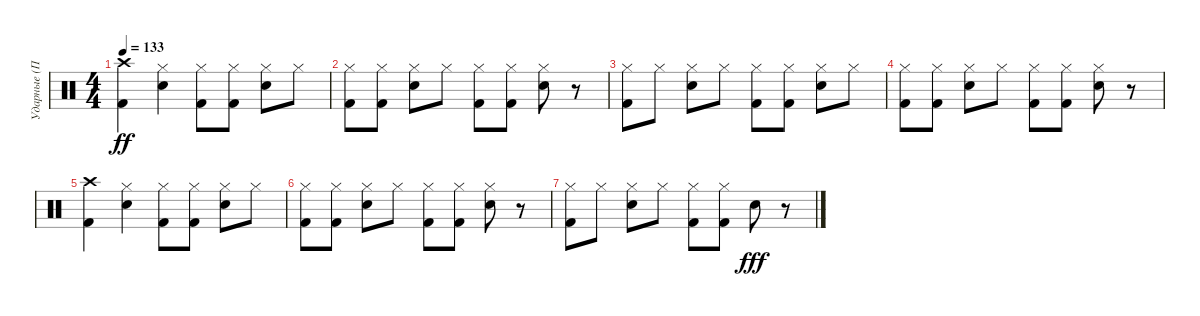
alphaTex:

\track ("Ударные (Пацан в Дредах)" "Ударные (П") {instrument percussion}
\staff {score}
\articulation defaults
\ts (4 4)
\tempo 133
\clef neutral
\ks c
("Crash high (hit)" "Kick (hit) 2").4{dy ff} ("Hi-Hat (closed)" "Electric Snare (hit)").4 ("Hi-Hat (closed)" "Kick (hit) 2").8 ("Hi-Hat (closed)" "Kick (hit) 2").8 ("Hi-Hat (closed)" "Electric Snare (hit)").8 "Hi-Hat (closed)".8 |
("Hi-Hat (closed)" "Kick (hit) 2").8 ("Hi-Hat (closed)" "Kick (hit) 2").8 ("Hi-Hat (closed)" "Electric Snare (hit)").8 "Hi-Hat (closed)".8 ("Hi-Hat (closed)" "Kick (hit) 2").8 ("Hi-Hat (closed)" "Kick (hit) 2").8 ("Hi-Hat (closed)" "Electric Snare (hit)").8 r.8 |
("Hi-Hat (closed)" "Kick (hit) 2").8 "Hi-Hat (closed)".8 ("Hi-Hat (closed)" "Electric Snare (hit)").8 "Hi-Hat (closed)".8 ("Hi-Hat (closed)" "Kick (hit) 2").8 ("Hi-Hat (closed)" "Kick (hit) 2").8 ("Hi-Hat (closed)" "Electric Snare (hit)").8 "Hi-Hat (closed)".8 |
("Hi-Hat (closed)" "Kick (hit) 2").8 ("Hi-Hat (closed)" "Kick (hit) 2").8 ("Hi-Hat (closed)" "Electric Snare (hit)").8 "Hi-Hat (closed)".8 ("Hi-Hat (closed)" "Kick (hit) 2").8 ("Hi-Hat (closed)" "Kick (hit) 2").8 ("Hi-Hat (closed)" "Electric Snare (hit)").8 r.8 |
("Crash high (hit)" "Kick (hit) 2").4 ("Hi-Hat (closed)" "Electric Snare (hit)").4 ("Hi-Hat (closed)" "Kick (hit) 2").8 ("Hi-Hat (closed)" "Kick (hit) 2").8 ("Hi-Hat (closed)" "Electric Snare (hit)").8 "Hi-Hat (closed)".8 |
("Hi-Hat (closed)" "Kick (hit) 2").8 ("Hi-Hat (closed)" "Kick (hit) 2").8 ("Hi-Hat (closed)" "Electric Snare (hit)").8 "Hi-Hat (closed)".8 ("Hi-Hat (closed)" "Kick (hit) 2").8 ("Hi-Hat (closed)" "Kick (hit) 2").8 ("Hi-Hat (closed)" "Electric Snare (hit)").8 r.8 |
("Hi-Hat (closed)" "Kick (hit) 2").8 "Hi-Hat (closed)".8 ("Hi-Hat (closed)" "Electric Snare (hit)").8 "Hi-Hat (closed)".8 ("Hi-Hat (closed)" "Kick (hit) 2").8 ("Hi-Hat (closed)" "Kick (hit) 2").8 "Electric Snare (hit)".8{dy fff} r.8
